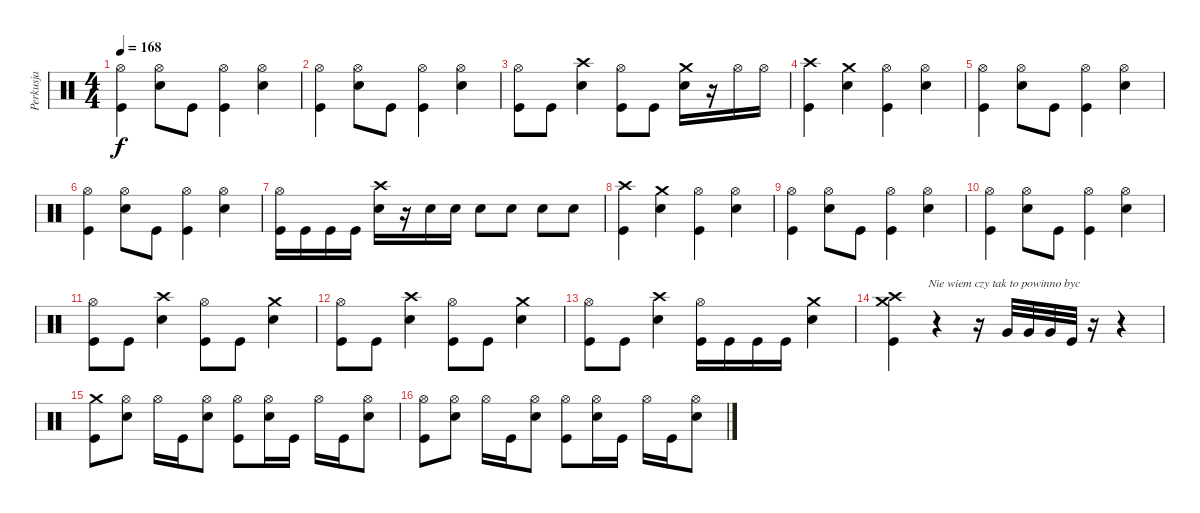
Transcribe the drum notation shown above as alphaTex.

\track ("Perkusja" "Perkusja") {instrument percussion}
\staff {score}
\articulation defaults
\ts (4 4)
\tempo 168
\clef neutral
\ks c
("Kick (hit)" "Hi-Hat (open)").4{dy f} ("Hi-Hat (open)" "Snare (hit) 2").8 "Kick (hit)".8 ("Kick (hit)" "Hi-Hat (open)").4 ("Hi-Hat (open)" "Snare (hit) 2").4 |
("Kick (hit)" "Hi-Hat (open)").4 ("Hi-Hat (open)" "Snare (hit) 2").8 "Kick (hit)".8 ("Kick (hit)" "Hi-Hat (open)").4 ("Hi-Hat (open)" "Snare (hit) 2").4 |
("Kick (hit)" "Hi-Hat (open)").8 "Kick (hit)".8 ("Crash high (hit)" "Snare (hit) 2").4 ("Kick (hit)" "Hi-Hat (open)").8 "Kick (hit)".8 ("Crash medium (hit)" "Snare (hit) 2").16 r.16 "Hi-Hat (open)".16 "Hi-Hat (open)".16 |
("Kick (hit)" "Crash high (hit)").4 ("Crash medium (hit)" "Snare (hit) 2").4 ("Kick (hit)" "Hi-Hat (open)").4 ("Hi-Hat (open)" "Snare (hit) 2").4 |
("Kick (hit)" "Hi-Hat (open)").4 ("Hi-Hat (open)" "Snare (hit) 2").8 "Kick (hit)".8 ("Kick (hit)" "Hi-Hat (open)").4 ("Hi-Hat (open)" "Snare (hit) 2").4 |
("Kick (hit)" "Hi-Hat (open)").4 ("Hi-Hat (open)" "Snare (hit) 2").8 "Kick (hit)".8 ("Kick (hit)" "Hi-Hat (open)").4 ("Hi-Hat (open)" "Snare (hit) 2").4 |
("Kick (hit)" "Hi-Hat (open)").16 "Kick (hit)".16 "Kick (hit)".16 "Kick (hit)".16 ("Crash high (hit)" "Snare (hit) 2").16 r.16 "Snare (hit) 2".16 "Snare (hit) 2".16 "Snare (hit) 2".8 "Snare (hit) 2".8 "Snare (hit) 2".8 "Snare (hit) 2".8 |
("Kick (hit)" "Crash high (hit)").4 ("Crash medium (hit)" "Snare (hit) 2").4 ("Kick (hit)" "Hi-Hat (open)").4 ("Hi-Hat (open)" "Snare (hit) 2").4 |
("Kick (hit)" "Hi-Hat (open)").4 ("Hi-Hat (open)" "Snare (hit) 2").8 "Kick (hit)".8 ("Kick (hit)" "Hi-Hat (open)").4 ("Hi-Hat (open)" "Snare (hit) 2").4 |
("Kick (hit)" "Hi-Hat (open)").4 ("Hi-Hat (open)" "Snare (hit) 2").8 "Kick (hit)".8 ("Kick (hit)" "Hi-Hat (open)").4 ("Hi-Hat (open)" "Snare (hit) 2").4 |
("Kick (hit)" "Hi-Hat (open)").8 "Kick (hit)".8 ("Crash high (hit)" "Snare (hit) 2").4 ("Kick (hit)" "Hi-Hat (open)").8 "Kick (hit)".8 ("Crash medium (hit)" "Snare (hit) 2").4 |
("Kick (hit)" "Hi-Hat (open)").8 "Kick (hit)".8 ("Crash high (hit)" "Snare (hit) 2").4 ("Kick (hit)" "Hi-Hat (open)").8 "Kick (hit)".8 ("Crash medium (hit)" "Snare (hit) 2").4 |
("Kick (hit)" "Hi-Hat (open)").8 "Kick (hit)".8 ("Crash high (hit)" "Snare (hit) 2").4 ("Kick (hit)" "Hi-Hat (open)").16 "Kick (hit)".16 "Kick (hit)".16 "Kick (hit)".16 ("Crash medium (hit)" "Snare (hit) 2").4 |
("Kick (hit)" "Crash medium (hit)" "Crash high (hit)").4{txt "           Nie wiem czy tak to powinno byc"} r.4 r.16 "Very Low Tom (hit)".32 "Very Low Tom (hit)".32 "Very Low Tom (hit)".32 "Kick (hit)".32 r.16 r.4 |
("Kick (hit)" "Crash medium (hit)").8 ("Hi-Hat (open)" "Snare (hit) 2").8 "Hi-Hat (open)".16 "Kick (hit)".16 ("Hi-Hat (open)" "Snare (hit) 2").8 ("Kick (hit)" "Hi-Hat (open)").8 ("Hi-Hat (open)" "Snare (hit) 2").16 "Kick (hit)".16 "Hi-Hat (open)".16 "Kick (hit)".16 ("Hi-Hat (open)" "Snare (hit) 2").8 |
("Kick (hit)" "Hi-Hat (open)").8 ("Hi-Hat (open)" "Snare (hit) 2").8 "Hi-Hat (open)".16 "Kick (hit)".16 ("Hi-Hat (open)" "Snare (hit) 2").8 ("Kick (hit)" "Hi-Hat (open)").8 ("Hi-Hat (open)" "Snare (hit) 2").16 "Kick (hit)".16 "Hi-Hat (open)".16 "Kick (hit)".16 ("Hi-Hat (open)" "Snare (hit) 2").8
